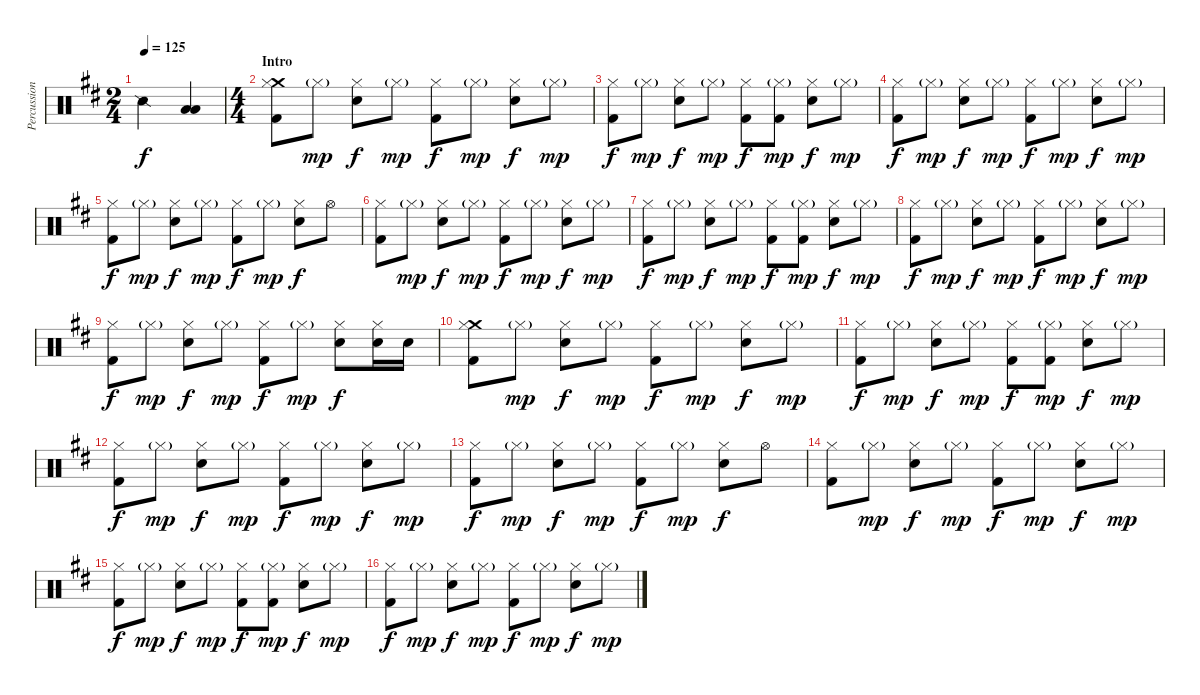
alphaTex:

\track ("Percussion" "Percussion") {instrument percussion}
\staff {score}
\articulation defaults
\ts (2 4)
\tempo 125
\clef neutral
\ks bminor "Snare (side stick) 2".4{dy f}
("Low Tom (hit)" "Low Floor Tom (hit)").4 |
\ts (4 4)
\section ("" "Intro")
("Crash medium (hit)" "Hi-Hat (closed)" "Kick (hit) 2").8 "Hi-Hat (closed)"{g}.8{dy mp} ("Hi-Hat (closed)" "Snare (hit) 2").8{dy f} "Hi-Hat (closed)"{g}.8{dy mp} ("Hi-Hat (closed)" "Kick (hit) 2").8{dy f} "Hi-Hat (closed)"{g}.8{dy mp} ("Hi-Hat (closed)" "Snare (hit) 2").8{dy f} "Hi-Hat (closed)"{g}.8{dy mp} |
("Hi-Hat (closed)" "Kick (hit) 2").8{dy f} "Hi-Hat (closed)"{g}.8{dy mp} ("Hi-Hat (closed)" "Snare (hit) 2").8{dy f} "Hi-Hat (closed)"{g}.8{dy mp} ("Hi-Hat (closed)" "Kick (hit) 2").8{dy f} ("Hi-Hat (closed)"{g} "Kick (hit) 2").8{dy mp} ("Hi-Hat (closed)" "Snare (hit) 2").8{dy f} "Hi-Hat (closed)"{g}.8{dy mp} |
("Hi-Hat (closed)" "Kick (hit) 2").8{dy f} "Hi-Hat (closed)"{g}.8{dy mp} ("Hi-Hat (closed)" "Snare (hit) 2").8{dy f} "Hi-Hat (closed)"{g}.8{dy mp} ("Hi-Hat (closed)" "Kick (hit) 2").8{dy f} "Hi-Hat (closed)"{g}.8{dy mp} ("Hi-Hat (closed)" "Snare (hit) 2").8{dy f} "Hi-Hat (closed)"{g}.8{dy mp} |
("Hi-Hat (closed)" "Kick (hit) 2").8{dy f} "Hi-Hat (closed)"{g}.8{dy mp} ("Hi-Hat (closed)" "Snare (hit) 2").8{dy f} "Hi-Hat (closed)"{g}.8{dy mp} ("Hi-Hat (closed)" "Kick (hit) 2").8{dy f} "Hi-Hat (closed)"{g}.8{dy mp} ("Hi-Hat (closed)" "Snare (hit) 2").8{dy f} "Hi-Hat (open)".8 |
("Hi-Hat (closed)" "Kick (hit) 2").8 "Hi-Hat (closed)"{g}.8{dy mp} ("Hi-Hat (closed)" "Snare (hit) 2").8{dy f} "Hi-Hat (closed)"{g}.8{dy mp} ("Hi-Hat (closed)" "Kick (hit) 2").8{dy f} "Hi-Hat (closed)"{g}.8{dy mp} ("Hi-Hat (closed)" "Snare (hit) 2").8{dy f} "Hi-Hat (closed)"{g}.8{dy mp} |
("Hi-Hat (closed)" "Kick (hit) 2").8{dy f} "Hi-Hat (closed)"{g}.8{dy mp} ("Hi-Hat (closed)" "Snare (hit) 2").8{dy f} "Hi-Hat (closed)"{g}.8{dy mp} ("Hi-Hat (closed)" "Kick (hit) 2").8{dy f} ("Hi-Hat (closed)"{g} "Kick (hit) 2").8{dy mp} ("Hi-Hat (closed)" "Snare (hit) 2").8{dy f} "Hi-Hat (closed)"{g}.8{dy mp} |
("Hi-Hat (closed)" "Kick (hit) 2").8{dy f} "Hi-Hat (closed)"{g}.8{dy mp} ("Hi-Hat (closed)" "Snare (hit) 2").8{dy f} "Hi-Hat (closed)"{g}.8{dy mp} ("Hi-Hat (closed)" "Kick (hit) 2").8{dy f} "Hi-Hat (closed)"{g}.8{dy mp} ("Hi-Hat (closed)" "Snare (hit) 2").8{dy f} "Hi-Hat (closed)"{g}.8{dy mp} |
("Hi-Hat (closed)" "Kick (hit) 2").8{dy f} "Hi-Hat (closed)"{g}.8{dy mp} ("Hi-Hat (closed)" "Snare (hit) 2").8{dy f} "Hi-Hat (closed)"{g}.8{dy mp} ("Hi-Hat (closed)" "Kick (hit) 2").8{dy f} "Hi-Hat (closed)"{g}.8{dy mp} ("Hi-Hat (closed)" "Snare (hit) 2").8{dy f} ("Hi-Hat (closed)" "Electric Snare (hit)").16 "Electric Snare (hit)".16 |
("Crash medium (hit)" "Hi-Hat (closed)" "Kick (hit) 2").8 "Hi-Hat (closed)"{g}.8{dy mp} ("Hi-Hat (closed)" "Snare (hit) 2").8{dy f} "Hi-Hat (closed)"{g}.8{dy mp} ("Hi-Hat (closed)" "Kick (hit) 2").8{dy f} "Hi-Hat (closed)"{g}.8{dy mp} ("Hi-Hat (closed)" "Snare (hit) 2").8{dy f} "Hi-Hat (closed)"{g}.8{dy mp} |
("Hi-Hat (closed)" "Kick (hit) 2").8{dy f} "Hi-Hat (closed)"{g}.8{dy mp} ("Hi-Hat (closed)" "Snare (hit) 2").8{dy f} "Hi-Hat (closed)"{g}.8{dy mp} ("Hi-Hat (closed)" "Kick (hit) 2").8{dy f} ("Hi-Hat (closed)"{g} "Kick (hit) 2").8{dy mp} ("Hi-Hat (closed)" "Snare (hit) 2").8{dy f} "Hi-Hat (closed)"{g}.8{dy mp} |
("Hi-Hat (closed)" "Kick (hit) 2").8{dy f} "Hi-Hat (closed)"{g}.8{dy mp} ("Hi-Hat (closed)" "Snare (hit) 2").8{dy f} "Hi-Hat (closed)"{g}.8{dy mp} ("Hi-Hat (closed)" "Kick (hit) 2").8{dy f} "Hi-Hat (closed)"{g}.8{dy mp} ("Hi-Hat (closed)" "Snare (hit) 2").8{dy f} "Hi-Hat (closed)"{g}.8{dy mp} |
("Hi-Hat (closed)" "Kick (hit) 2").8{dy f} "Hi-Hat (closed)"{g}.8{dy mp} ("Hi-Hat (closed)" "Snare (hit) 2").8{dy f} "Hi-Hat (closed)"{g}.8{dy mp} ("Hi-Hat (closed)" "Kick (hit) 2").8{dy f} "Hi-Hat (closed)"{g}.8{dy mp} ("Hi-Hat (closed)" "Snare (hit) 2").8{dy f} "Hi-Hat (open)".8 |
("Hi-Hat (closed)" "Kick (hit) 2").8 "Hi-Hat (closed)"{g}.8{dy mp} ("Hi-Hat (closed)" "Snare (hit) 2").8{dy f} "Hi-Hat (closed)"{g}.8{dy mp} ("Hi-Hat (closed)" "Kick (hit) 2").8{dy f} "Hi-Hat (closed)"{g}.8{dy mp} ("Hi-Hat (closed)" "Snare (hit) 2").8{dy f} "Hi-Hat (closed)"{g}.8{dy mp} |
("Hi-Hat (closed)" "Kick (hit) 2").8{dy f} "Hi-Hat (closed)"{g}.8{dy mp} ("Hi-Hat (closed)" "Snare (hit) 2").8{dy f} "Hi-Hat (closed)"{g}.8{dy mp} ("Hi-Hat (closed)" "Kick (hit) 2").8{dy f} ("Hi-Hat (closed)"{g} "Kick (hit) 2").8{dy mp} ("Hi-Hat (closed)" "Snare (hit) 2").8{dy f} "Hi-Hat (closed)"{g}.8{dy mp} |
("Hi-Hat (closed)" "Kick (hit) 2").8{dy f} "Hi-Hat (closed)"{g}.8{dy mp} ("Hi-Hat (closed)" "Snare (hit) 2").8{dy f} "Hi-Hat (closed)"{g}.8{dy mp} ("Hi-Hat (closed)" "Kick (hit) 2").8{dy f} "Hi-Hat (closed)"{g}.8{dy mp} ("Hi-Hat (closed)" "Snare (hit) 2").8{dy f} "Hi-Hat (closed)"{g}.8{dy mp}
